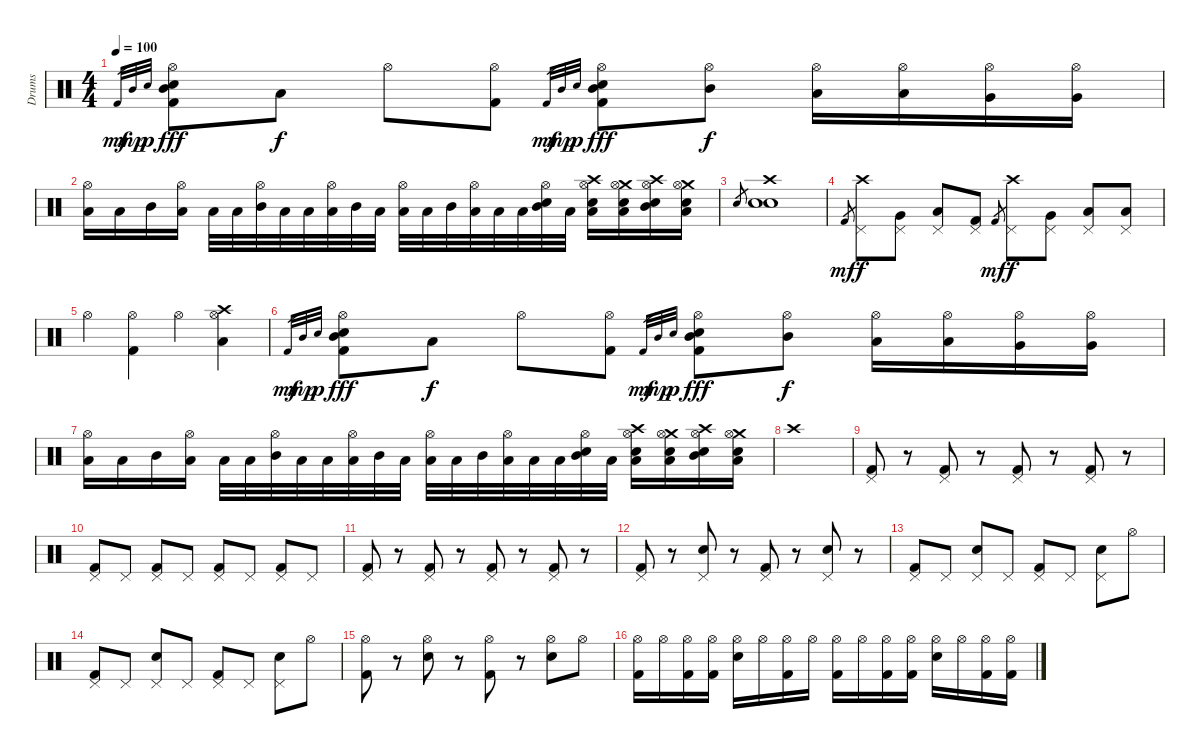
\track ("Drums" "Drums") {instrument percussion}
\staff {score}
\articulation defaults
\ts (4 4)
\tempo 100
\clef neutral
\ks c "Kick (hit) 2".32{gr dy mf} "Mid Tom (hit)".32{gr dy mp} "Snare (hit) 2".32{gr dy p}
("Kick (hit) 2" "Mid Tom (hit)" "Hi-Hat (open)" "Snare (hit) 2").8{dy fff} "Low Tom (hit)".8{dy f} "Hi-Hat (open)".8 ("Kick (hit) 2" "Hi-Hat (open)").8 "Kick (hit) 2".32{gr dy mf} "Mid Tom (hit)".32{gr dy mp} "Snare (hit) 2".32{gr dy p} ("Kick (hit) 2" "Mid Tom (hit)" "Hi-Hat (open)" "Snare (hit) 2").8{dy fff} ("Hi-Hat (open)" "Mid Tom (hit)").8{dy f} ("Hi-Hat (open)" "Low Tom (hit)").16 ("Hi-Hat (open)" "Low Tom (hit)").16 ("Hi-Hat (open)" "Very Low Tom (hit)").16 ("Hi-Hat (open)" "Very Low Tom (hit)").16 |
("Hi-Hat (open)" "Low Tom (hit)").16 "Low Tom (hit)".16 "Mid Tom (hit)".16 ("Hi-Hat (open)" "Low Tom (hit)").16 "Low Tom (hit)".32 "Low Tom (hit)".32 ("Hi-Hat (open)" "Mid Tom (hit)").32 "Low Tom (hit)".32 "Low Tom (hit)".32 ("Hi-Hat (open)" "Low Tom (hit)").32 "Mid Tom (hit)".32 "Low Tom (hit)".32 ("Hi-Hat (open)" "Low Tom (hit)").32 "Low Tom (hit)".32 "Mid Tom (hit)".32 ("Hi-Hat (open)" "Low Tom (hit)").32 "Low Tom (hit)".32 "Low Tom (hit)".32 ("Hi-Hat (open)" "Electric Snare (hit)" "Mid Tom (hit)").32 "Low Tom (hit)".32 ("Crash high (hit)" "Hi-Hat (open)" "Electric Snare (hit)" "Low Tom (hit)").16 ("Crash medium (hit)" "Hi-Hat (open)" "Electric Snare (hit)" "Low Tom (hit)").16 ("Crash high (hit)" "Hi-Hat (open)" "Electric Snare (hit)" "Mid Tom (hit)").16 ("Crash medium (hit)" "Hi-Hat (open)" "Electric Snare (hit)" "Low Tom (hit)").16 |
"Electric Snare (hit)".8{gr} ("Crash high (hit)" "Electric Snare (hit)" "Electric Snare (hit)").1 |
"Kick (hit) 2".8{gr dy mf} ("Crash high (hit)" "Pedal Hi-Hat (hit)").8{dy f} ("Pedal Hi-Hat (hit)" "Very Low Tom (hit)").8 ("Pedal Hi-Hat (hit)" "Low Floor Tom (hit)").8 ("Kick (hit) 2" "Pedal Hi-Hat (hit)").8 "Kick (hit) 2".8{gr dy mf} ("Crash high (hit)" "Pedal Hi-Hat (hit)").8{dy f} ("Pedal Hi-Hat (hit)" "Very Low Tom (hit)").8 ("Pedal Hi-Hat (hit)" "Low Floor Tom (hit)").8 ("Pedal Hi-Hat (hit)" "Low Floor Tom (hit)").8 |
"Hi-Hat (open)".4 ("Hi-Hat (open)" "Kick (hit) 2").4 "Hi-Hat (open)".4 ("Hi-Hat (open)" "Crash high (hit)" "Low Tom (hit)").4 |
"Kick (hit) 2".32{gr dy mf} "Mid Tom (hit)".32{gr dy mp} "Snare (hit) 2".32{gr dy p} ("Kick (hit) 2" "Mid Tom (hit)" "Hi-Hat (open)" "Snare (hit) 2").8{dy fff} "Low Tom (hit)".8{dy f} "Hi-Hat (open)".8 ("Kick (hit) 2" "Hi-Hat (open)").8 "Kick (hit) 2".32{gr dy mf} "Mid Tom (hit)".32{gr dy mp} "Snare (hit) 2".32{gr dy p} ("Kick (hit) 2" "Mid Tom (hit)" "Hi-Hat (open)" "Snare (hit) 2").8{dy fff} ("Hi-Hat (open)" "Mid Tom (hit)").8{dy f} ("Hi-Hat (open)" "Low Tom (hit)").16 ("Hi-Hat (open)" "Low Tom (hit)").16 ("Hi-Hat (open)" "Very Low Tom (hit)").16 ("Hi-Hat (open)" "Very Low Tom (hit)").16 |
("Hi-Hat (open)" "Low Tom (hit)").16 "Low Tom (hit)".16 "Mid Tom (hit)".16 ("Hi-Hat (open)" "Low Tom (hit)").16 "Low Tom (hit)".32 "Low Tom (hit)".32 ("Hi-Hat (open)" "Mid Tom (hit)").32 "Low Tom (hit)".32 "Low Tom (hit)".32 ("Hi-Hat (open)" "Low Tom (hit)").32 "Mid Tom (hit)".32 "Low Tom (hit)".32 ("Hi-Hat (open)" "Low Tom (hit)").32 "Low Tom (hit)".32 "Mid Tom (hit)".32 ("Hi-Hat (open)" "Low Tom (hit)").32 "Low Tom (hit)".32 "Low Tom (hit)".32 ("Hi-Hat (open)" "Electric Snare (hit)" "Mid Tom (hit)").32 "Low Tom (hit)".32 ("Crash high (hit)" "Hi-Hat (open)" "Electric Snare (hit)" "Low Tom (hit)").16 ("Crash medium (hit)" "Hi-Hat (open)" "Electric Snare (hit)" "Low Tom (hit)").16 ("Crash high (hit)" "Hi-Hat (open)" "Electric Snare (hit)" "Mid Tom (hit)").16 ("Crash medium (hit)" "Hi-Hat (open)" "Electric Snare (hit)" "Low Tom (hit)").16 |
"Crash high (hit)".1 |
("Pedal Hi-Hat (hit)" "Kick (hit) 2").8 r.8 ("Pedal Hi-Hat (hit)" "Kick (hit) 2").8 r.8 ("Pedal Hi-Hat (hit)" "Kick (hit) 2").8 r.8 ("Pedal Hi-Hat (hit)" "Kick (hit) 2").8 r.8 |
("Pedal Hi-Hat (hit)" "Kick (hit) 2").8 "Pedal Hi-Hat (hit)".8 ("Pedal Hi-Hat (hit)" "Kick (hit) 2").8 "Pedal Hi-Hat (hit)".8 ("Pedal Hi-Hat (hit)" "Kick (hit) 2").8 "Pedal Hi-Hat (hit)".8 ("Pedal Hi-Hat (hit)" "Kick (hit) 2").8 "Pedal Hi-Hat (hit)".8 |
("Pedal Hi-Hat (hit)" "Kick (hit) 2").8 r.8 ("Pedal Hi-Hat (hit)" "Kick (hit) 2").8 r.8 ("Pedal Hi-Hat (hit)" "Kick (hit) 2").8 r.8 ("Pedal Hi-Hat (hit)" "Kick (hit) 2").8 r.8 |
("Pedal Hi-Hat (hit)" "Kick (hit) 2").8 r.8 ("Pedal Hi-Hat (hit)" "Snare (hit) 2").8 r.8 ("Pedal Hi-Hat (hit)" "Kick (hit) 2").8 r.8 ("Pedal Hi-Hat (hit)" "Snare (hit) 2").8 r.8 |
("Pedal Hi-Hat (hit)" "Kick (hit) 2").8 "Pedal Hi-Hat (hit)".8 ("Pedal Hi-Hat (hit)" "Snare (hit) 2").8 "Pedal Hi-Hat (hit)".8 ("Pedal Hi-Hat (hit)" "Kick (hit) 2").8 "Pedal Hi-Hat (hit)".8 ("Pedal Hi-Hat (hit)" "Snare (hit) 2").8 "Hi-Hat (open)".8 |
("Pedal Hi-Hat (hit)" "Kick (hit) 2").8 "Pedal Hi-Hat (hit)".8 ("Pedal Hi-Hat (hit)" "Snare (hit) 2").8 "Pedal Hi-Hat (hit)".8 ("Pedal Hi-Hat (hit)" "Kick (hit) 2").8 "Pedal Hi-Hat (hit)".8 ("Pedal Hi-Hat (hit)" "Snare (hit) 2").8 "Hi-Hat (open)".8 |
("Hi-Hat (open)" "Kick (hit) 2").8 r.8 ("Hi-Hat (open)" "Snare (hit) 2").8 r.8 ("Hi-Hat (open)" "Kick (hit) 2").8 r.8 ("Hi-Hat (open)" "Snare (hit) 2").8 "Hi-Hat (open)".8 |
("Hi-Hat (open)" "Kick (hit) 2").16 "Hi-Hat (open)".16 ("Hi-Hat (open)" "Kick (hit) 2").16 ("Hi-Hat (open)" "Kick (hit) 2").16 ("Hi-Hat (open)" "Snare (hit) 2").16 "Hi-Hat (open)".16 ("Hi-Hat (open)" "Kick (hit) 2").16 "Hi-Hat (open)".16 ("Hi-Hat (open)" "Kick (hit) 2").16 "Hi-Hat (open)".16 ("Hi-Hat (open)" "Kick (hit) 2").16 ("Hi-Hat (open)" "Kick (hit) 2").16 ("Hi-Hat (open)" "Snare (hit) 2").16 "Hi-Hat (open)".16 ("Hi-Hat (open)" "Kick (hit) 2").16 ("Hi-Hat (open)" "Kick (hit) 2").16
